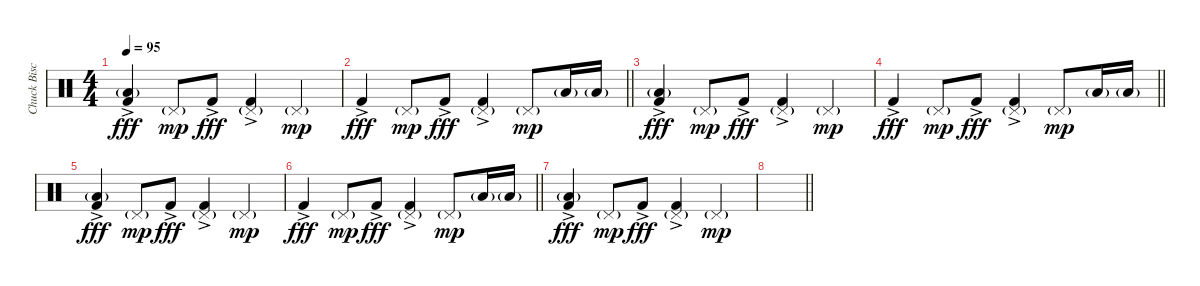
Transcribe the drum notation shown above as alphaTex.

\track ("Chuck Biscuits" "Chuck Bisc") {instrument percussion}
\staff {score}
\articulation defaults
\ts (4 4)
\tempo 95
\clef neutral
\ks c
("Low Floor Tom (hit)"{g} "Kick (hit) 2"{ac}).4{dy fff} "Pedal Hi-Hat (hit)"{g}.8{dy mp} "Kick (hit) 2"{ac}.8{dy fff} ("Pedal Hi-Hat (hit)"{g} "Kick (hit) 2"{ac}).4 "Pedal Hi-Hat (hit)"{g}.4{dy mp} |
\barLineRight lightlight "Kick (hit) 2"{ac}.4{dy fff} "Pedal Hi-Hat (hit)"{g}.8{dy mp} "Kick (hit) 2"{ac}.8{dy fff}
("Pedal Hi-Hat (hit)"{g} "Kick (hit) 2"{ac}).4 "Pedal Hi-Hat (hit)"{g}.8{dy mp} "Low Floor Tom (hit)"{g}.16 "Low Floor Tom (hit)"{g}.16 |
("Low Floor Tom (hit)"{g} "Kick (hit) 2"{ac}).4{dy fff} "Pedal Hi-Hat (hit)"{g}.8{dy mp} "Kick (hit) 2"{ac}.8{dy fff} ("Pedal Hi-Hat (hit)"{g} "Kick (hit) 2"{ac}).4 "Pedal Hi-Hat (hit)"{g}.4{dy mp} |
\barLineRight lightlight "Kick (hit) 2"{ac}.4{dy fff} "Pedal Hi-Hat (hit)"{g}.8{dy mp} "Kick (hit) 2"{ac}.8{dy fff}
("Pedal Hi-Hat (hit)"{g} "Kick (hit) 2"{ac}).4 "Pedal Hi-Hat (hit)"{g}.8{dy mp} "Low Floor Tom (hit)"{g}.16 "Low Floor Tom (hit)"{g}.16 |
("Low Floor Tom (hit)"{g} "Kick (hit) 2"{ac}).4{dy fff} "Pedal Hi-Hat (hit)"{g}.8{dy mp} "Kick (hit) 2"{ac}.8{dy fff} ("Pedal Hi-Hat (hit)"{g} "Kick (hit) 2"{ac}).4 "Pedal Hi-Hat (hit)"{g}.4{dy mp} |
\barLineRight lightlight "Kick (hit) 2"{ac}.4{dy fff} "Pedal Hi-Hat (hit)"{g}.8{dy mp} "Kick (hit) 2"{ac}.8{dy fff}
("Pedal Hi-Hat (hit)"{g} "Kick (hit) 2"{ac}).4 "Pedal Hi-Hat (hit)"{g}.8{dy mp} "Low Floor Tom (hit)"{g}.16 "Low Floor Tom (hit)"{g}.16 |
("Low Floor Tom (hit)"{g} "Kick (hit) 2"{ac}).4{dy fff} "Pedal Hi-Hat (hit)"{g}.8{dy mp} "Kick (hit) 2"{ac}.8{dy fff} ("Pedal Hi-Hat (hit)"{g} "Kick (hit) 2"{ac}).4 "Pedal Hi-Hat (hit)"{g}.4{dy mp} |
\barLineRight lightlight
